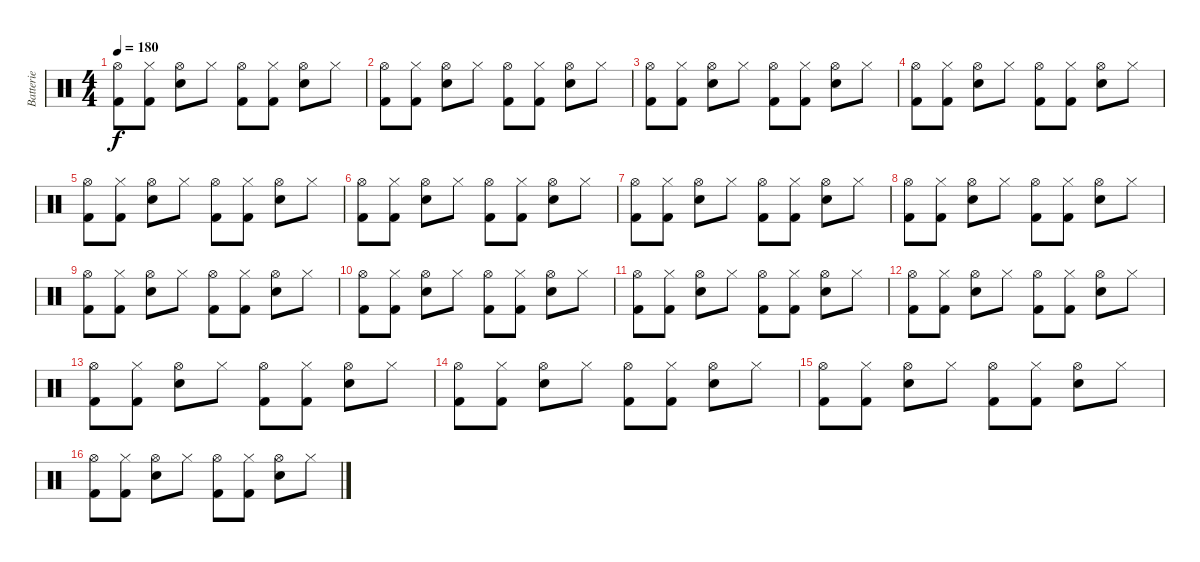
\track ("Batterie" "Batterie") {instrument percussion}
\staff {score}
\articulation defaults
\ts (4 4)
\tempo 180
\clef neutral
\ks c
("Hi-Hat (open)" "Kick (hit) 2").8{dy f} ("Hi-Hat (closed)" "Kick (hit) 2").8 ("Hi-Hat (open)" "Electric Snare (hit)").8 "Hi-Hat (closed)".8 ("Hi-Hat (open)" "Kick (hit) 2").8 ("Hi-Hat (closed)" "Kick (hit) 2").8 ("Hi-Hat (open)" "Electric Snare (hit)").8 "Hi-Hat (closed)".8 |
("Hi-Hat (open)" "Kick (hit) 2").8 ("Hi-Hat (closed)" "Kick (hit) 2").8 ("Hi-Hat (open)" "Electric Snare (hit)").8 "Hi-Hat (closed)".8 ("Hi-Hat (open)" "Kick (hit) 2").8 ("Hi-Hat (closed)" "Kick (hit) 2").8 ("Hi-Hat (open)" "Electric Snare (hit)").8 "Hi-Hat (closed)".8 |
("Hi-Hat (open)" "Kick (hit) 2").8 ("Hi-Hat (closed)" "Kick (hit) 2").8 ("Hi-Hat (open)" "Electric Snare (hit)").8 "Hi-Hat (closed)".8 ("Hi-Hat (open)" "Kick (hit) 2").8 ("Hi-Hat (closed)" "Kick (hit) 2").8 ("Hi-Hat (open)" "Electric Snare (hit)").8 "Hi-Hat (closed)".8 |
("Hi-Hat (open)" "Kick (hit) 2").8 ("Hi-Hat (closed)" "Kick (hit) 2").8 ("Hi-Hat (open)" "Electric Snare (hit)").8 "Hi-Hat (closed)".8 ("Hi-Hat (open)" "Kick (hit) 2").8 ("Hi-Hat (closed)" "Kick (hit) 2").8 ("Hi-Hat (open)" "Electric Snare (hit)").8 "Hi-Hat (closed)".8 |
("Hi-Hat (open)" "Kick (hit) 2").8 ("Hi-Hat (closed)" "Kick (hit) 2").8 ("Hi-Hat (open)" "Electric Snare (hit)").8 "Hi-Hat (closed)".8 ("Hi-Hat (open)" "Kick (hit) 2").8 ("Hi-Hat (closed)" "Kick (hit) 2").8 ("Hi-Hat (open)" "Electric Snare (hit)").8 "Hi-Hat (closed)".8 |
("Hi-Hat (open)" "Kick (hit) 2").8 ("Hi-Hat (closed)" "Kick (hit) 2").8 ("Hi-Hat (open)" "Electric Snare (hit)").8 "Hi-Hat (closed)".8 ("Hi-Hat (open)" "Kick (hit) 2").8 ("Hi-Hat (closed)" "Kick (hit) 2").8 ("Hi-Hat (open)" "Electric Snare (hit)").8 "Hi-Hat (closed)".8 |
("Hi-Hat (open)" "Kick (hit) 2").8 ("Hi-Hat (closed)" "Kick (hit) 2").8 ("Hi-Hat (open)" "Electric Snare (hit)").8 "Hi-Hat (closed)".8 ("Hi-Hat (open)" "Kick (hit) 2").8 ("Hi-Hat (closed)" "Kick (hit) 2").8 ("Hi-Hat (open)" "Electric Snare (hit)").8 "Hi-Hat (closed)".8 |
("Hi-Hat (open)" "Kick (hit) 2").8 ("Hi-Hat (closed)" "Kick (hit) 2").8 ("Hi-Hat (open)" "Electric Snare (hit)").8 "Hi-Hat (closed)".8 ("Hi-Hat (open)" "Kick (hit) 2").8 ("Hi-Hat (closed)" "Kick (hit) 2").8 ("Hi-Hat (open)" "Electric Snare (hit)").8 "Hi-Hat (closed)".8 |
("Hi-Hat (open)" "Kick (hit) 2").8 ("Hi-Hat (closed)" "Kick (hit) 2").8 ("Hi-Hat (open)" "Electric Snare (hit)").8 "Hi-Hat (closed)".8 ("Hi-Hat (open)" "Kick (hit) 2").8 ("Hi-Hat (closed)" "Kick (hit) 2").8 ("Hi-Hat (open)" "Electric Snare (hit)").8 "Hi-Hat (closed)".8 |
("Hi-Hat (open)" "Kick (hit) 2").8 ("Hi-Hat (closed)" "Kick (hit) 2").8 ("Hi-Hat (open)" "Electric Snare (hit)").8 "Hi-Hat (closed)".8 ("Hi-Hat (open)" "Kick (hit) 2").8 ("Hi-Hat (closed)" "Kick (hit) 2").8 ("Hi-Hat (open)" "Electric Snare (hit)").8 "Hi-Hat (closed)".8 |
("Hi-Hat (open)" "Kick (hit) 2").8 ("Hi-Hat (closed)" "Kick (hit) 2").8 ("Hi-Hat (open)" "Electric Snare (hit)").8 "Hi-Hat (closed)".8 ("Hi-Hat (open)" "Kick (hit) 2").8 ("Hi-Hat (closed)" "Kick (hit) 2").8 ("Hi-Hat (open)" "Electric Snare (hit)").8 "Hi-Hat (closed)".8 |
("Hi-Hat (open)" "Kick (hit) 2").8 ("Hi-Hat (closed)" "Kick (hit) 2").8 ("Hi-Hat (open)" "Electric Snare (hit)").8 "Hi-Hat (closed)".8 ("Hi-Hat (open)" "Kick (hit) 2").8 ("Hi-Hat (closed)" "Kick (hit) 2").8 ("Hi-Hat (open)" "Electric Snare (hit)").8 "Hi-Hat (closed)".8 |
("Hi-Hat (open)" "Kick (hit) 2").8 ("Hi-Hat (closed)" "Kick (hit) 2").8 ("Hi-Hat (open)" "Electric Snare (hit)").8 "Hi-Hat (closed)".8 ("Hi-Hat (open)" "Kick (hit) 2").8 ("Hi-Hat (closed)" "Kick (hit) 2").8 ("Hi-Hat (open)" "Electric Snare (hit)").8 "Hi-Hat (closed)".8 |
("Hi-Hat (open)" "Kick (hit) 2").8 ("Hi-Hat (closed)" "Kick (hit) 2").8 ("Hi-Hat (open)" "Electric Snare (hit)").8 "Hi-Hat (closed)".8 ("Hi-Hat (open)" "Kick (hit) 2").8 ("Hi-Hat (closed)" "Kick (hit) 2").8 ("Hi-Hat (open)" "Electric Snare (hit)").8 "Hi-Hat (closed)".8 |
("Hi-Hat (open)" "Kick (hit) 2").8 ("Hi-Hat (closed)" "Kick (hit) 2").8 ("Hi-Hat (open)" "Electric Snare (hit)").8 "Hi-Hat (closed)".8 ("Hi-Hat (open)" "Kick (hit) 2").8 ("Hi-Hat (closed)" "Kick (hit) 2").8 ("Hi-Hat (open)" "Electric Snare (hit)").8 "Hi-Hat (closed)".8 |
("Hi-Hat (open)" "Kick (hit) 2").8 ("Hi-Hat (closed)" "Kick (hit) 2").8 ("Hi-Hat (open)" "Electric Snare (hit)").8 "Hi-Hat (closed)".8 ("Hi-Hat (open)" "Kick (hit) 2").8 ("Hi-Hat (closed)" "Kick (hit) 2").8 ("Hi-Hat (open)" "Electric Snare (hit)").8 "Hi-Hat (closed)".8
